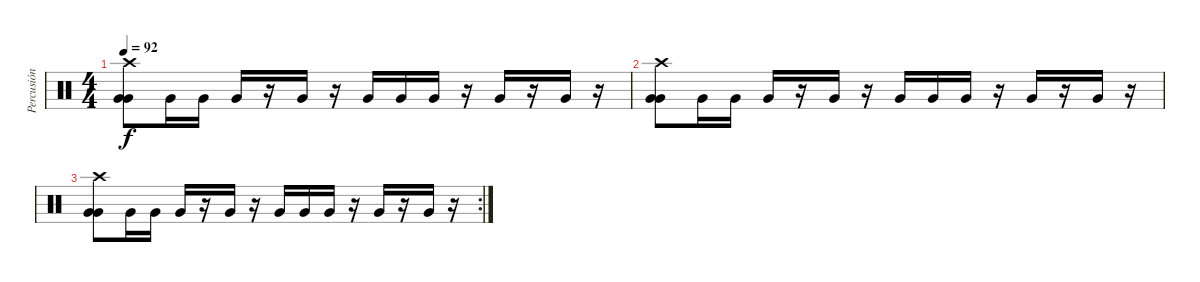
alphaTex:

\track ("Percusión" "Percusión") {instrument percussion}
\staff {score}
\articulation defaults
\ts (4 4)
\tempo 92
\clef neutral
\ks c
("Crash high (hit)" "Very Low Tom (hit)" "Very Low Tom (hit)").8{dy f} "Very Low Tom (hit)".16 "Very Low Tom (hit)".16 "Very Low Tom (hit)".16 r.16 "Very Low Tom (hit)".16 r.16 "Very Low Tom (hit)".16 "Very Low Tom (hit)".16 "Very Low Tom (hit)".16 r.16 "Very Low Tom (hit)".16 r.16 "Very Low Tom (hit)".16 r.16 |
("Crash high (hit)" "Very Low Tom (hit)" "Very Low Tom (hit)").8 "Very Low Tom (hit)".16 "Very Low Tom (hit)".16 "Very Low Tom (hit)".16 r.16 "Very Low Tom (hit)".16 r.16 "Very Low Tom (hit)".16 "Very Low Tom (hit)".16 "Very Low Tom (hit)".16 r.16 "Very Low Tom (hit)".16 r.16 "Very Low Tom (hit)".16 r.16 |
\rc 2
("Crash high (hit)" "Very Low Tom (hit)" "Very Low Tom (hit)").8 "Very Low Tom (hit)".16 "Very Low Tom (hit)".16 "Very Low Tom (hit)".16 r.16 "Very Low Tom (hit)".16 r.16 "Very Low Tom (hit)".16 "Very Low Tom (hit)".16 "Very Low Tom (hit)".16 r.16 "Very Low Tom (hit)".16 r.16 "Very Low Tom (hit)".16 r.16
